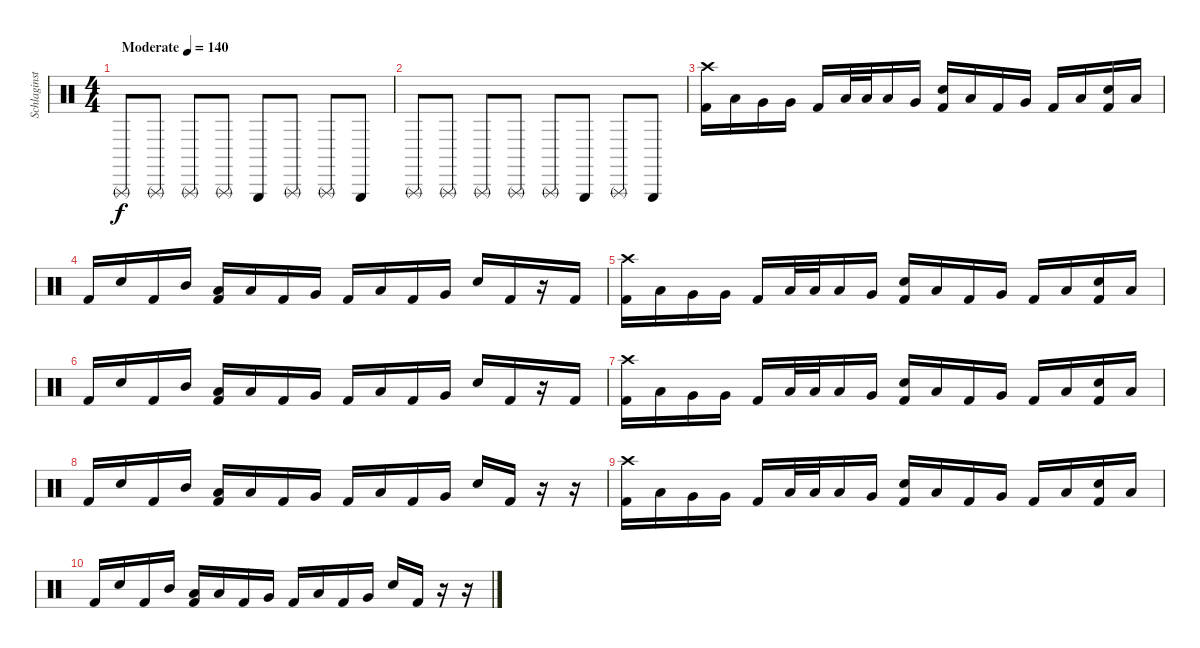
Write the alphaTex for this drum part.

\track ("Schlaginstrumente - Auswahl" "Schlaginst") {instrument percussion}
\staff {score}
\articulation defaults
\ts (4 4)
\tempo (140 "Moderate")
\clef neutral
\ks c "Triangle (rnute)".8{dy f} "Triangle (rnute)".8 "Triangle (rnute)".8 "Triangle (rnute)".8 "Triangle (hit)".8 "Triangle (rnute)".8 "Triangle (rnute)".8 "Triangle (hit)".8
|
"Triangle (rnute)".8 "Triangle (rnute)".8 "Triangle (rnute)".8 "Triangle (rnute)".8 "Triangle (rnute)".8 "Triangle (hit)".8 "Triangle (rnute)".8 "Triangle (hit)".8 |
("Crash high (hit)" "Kick (hit) 2").16 "Low Floor Tom (hit)".16 "Very Low Tom (hit)".16 "Very Low Tom (hit)".16 "Kick (hit) 2".16 "Low Tom (hit)".32 "Low Tom (hit)".32 "Low Floor Tom (hit)".16 "Very Low Tom (hit)".16 ("Snare (hit) 2" "Kick (hit) 2").16 "Low Floor Tom (hit)".16 "Kick (hit) 2".16 "Very Low Tom (hit)".16 "Kick (hit) 2".16 "Low Tom (hit)".16 ("Snare (hit) 2" "Kick (hit) 2").16 "Low Tom (hit)".16 |
"Kick (hit) 2".16 "Snare (hit) 2".16 "Kick (hit) 2".16 "Mid Tom (hit)".16 ("Low Tom (hit)" "Kick (hit) 2").16 "Low Floor Tom (hit)".16 "Kick (hit) 2".16 "Very Low Tom (hit)".16 "Kick (hit) 2".16 "Low Tom (hit)".16 "Kick (hit) 2".16 "Very Low Tom (hit)".16 "Snare (hit) 2".16 "Kick (hit) 2".16 r.16 "Kick (hit) 2".16 |
("Crash high (hit)" "Kick (hit) 2").16 "Low Floor Tom (hit)".16 "Very Low Tom (hit)".16 "Very Low Tom (hit)".16 "Kick (hit) 2".16 "Low Tom (hit)".32 "Low Tom (hit)".32 "Low Floor Tom (hit)".16 "Very Low Tom (hit)".16 ("Snare (hit) 2" "Kick (hit) 2").16 "Low Floor Tom (hit)".16 "Kick (hit) 2".16 "Very Low Tom (hit)".16 "Kick (hit) 2".16 "Low Tom (hit)".16 ("Snare (hit) 2" "Kick (hit) 2").16 "Low Tom (hit)".16 |
"Kick (hit) 2".16 "Snare (hit) 2".16 "Kick (hit) 2".16 "Mid Tom (hit)".16 ("Low Tom (hit)" "Kick (hit) 2").16 "Low Floor Tom (hit)".16 "Kick (hit) 2".16 "Very Low Tom (hit)".16 "Kick (hit) 2".16 "Low Tom (hit)".16 "Kick (hit) 2".16 "Very Low Tom (hit)".16 "Snare (hit) 2".16 "Kick (hit) 2".16 r.16 "Kick (hit) 2".16 |
("Crash high (hit)" "Kick (hit) 2").16 "Low Floor Tom (hit)".16 "Very Low Tom (hit)".16 "Very Low Tom (hit)".16 "Kick (hit) 2".16 "Low Tom (hit)".32 "Low Tom (hit)".32 "Low Floor Tom (hit)".16 "Very Low Tom (hit)".16 ("Snare (hit) 2" "Kick (hit) 2").16 "Low Floor Tom (hit)".16 "Kick (hit) 2".16 "Very Low Tom (hit)".16 "Kick (hit) 2".16 "Low Tom (hit)".16 ("Snare (hit) 2" "Kick (hit) 2").16 "Low Tom (hit)".16 |
"Kick (hit) 2".16 "Snare (hit) 2".16 "Kick (hit) 2".16 "Mid Tom (hit)".16 ("Low Tom (hit)" "Kick (hit) 2").16 "Low Floor Tom (hit)".16 "Kick (hit) 2".16 "Very Low Tom (hit)".16 "Kick (hit) 2".16 "Low Tom (hit)".16 "Kick (hit) 2".16 "Very Low Tom (hit)".16 "Snare (hit) 2".16 "Kick (hit) 2".16 r.16 r.16 |
("Crash high (hit)" "Kick (hit) 2").16 "Low Floor Tom (hit)".16 "Very Low Tom (hit)".16 "Very Low Tom (hit)".16 "Kick (hit) 2".16 "Low Tom (hit)".32 "Low Tom (hit)".32 "Low Floor Tom (hit)".16 "Very Low Tom (hit)".16 ("Snare (hit) 2" "Kick (hit) 2").16 "Low Floor Tom (hit)".16 "Kick (hit) 2".16 "Very Low Tom (hit)".16 "Kick (hit) 2".16 "Low Tom (hit)".16 ("Snare (hit) 2" "Kick (hit) 2").16 "Low Tom (hit)".16 |
"Kick (hit) 2".16 "Snare (hit) 2".16 "Kick (hit) 2".16 "Mid Tom (hit)".16 ("Low Tom (hit)" "Kick (hit) 2").16 "Low Floor Tom (hit)".16 "Kick (hit) 2".16 "Very Low Tom (hit)".16 "Kick (hit) 2".16 "Low Tom (hit)".16 "Kick (hit) 2".16 "Very Low Tom (hit)".16 "Snare (hit) 2".16 "Kick (hit) 2".16 r.16 r.16
